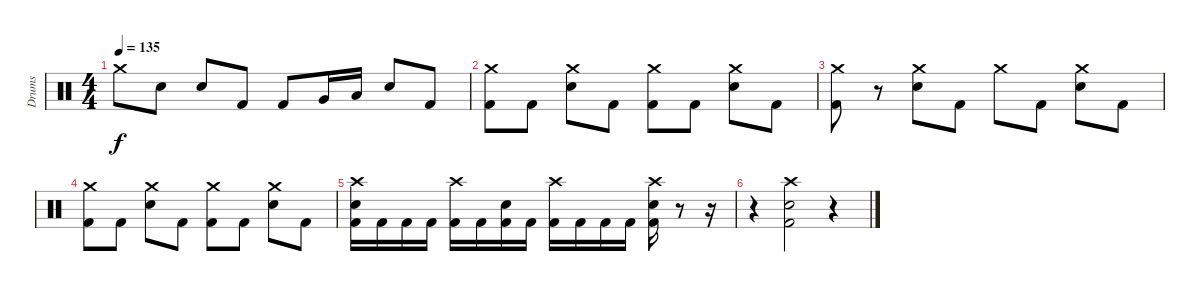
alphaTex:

\track ("Drums" "Drums") {instrument percussion}
\staff {score}
\articulation defaults
\ts (4 4)
\tempo 135
\clef neutral
\ks c "Crash medium (hit)".8{dy f} "Electric Snare (hit)".8 "Electric Snare (hit)".8 "Kick (hit) 2".8 "Kick (hit) 2".8 "Very Low Tom (hit)".16 "Low Tom (hit)".16 "Electric Snare (hit)".8 "Kick (hit) 2".8
|
("Crash medium (hit)" "Kick (hit) 2").8 "Kick (hit) 2".8 ("Crash medium (hit)" "Electric Snare (hit)").8 "Kick (hit) 2".8 ("Crash medium (hit)" "Kick (hit) 2").8 "Kick (hit) 2".8 ("Crash medium (hit)" "Electric Snare (hit)").8 "Kick (hit) 2".8 |
("Crash medium (hit)" "Kick (hit) 2").8 r.8 ("Crash medium (hit)" "Electric Snare (hit)").8 "Kick (hit) 2".8 "Crash medium (hit)".8 "Kick (hit) 2".8 ("Crash medium (hit)" "Electric Snare (hit)").8 "Kick (hit) 2".8 |
("Crash medium (hit)" "Kick (hit) 2").8 "Kick (hit) 2".8 ("Crash medium (hit)" "Electric Snare (hit)").8 "Kick (hit) 2".8 ("Crash medium (hit)" "Kick (hit) 2").8 "Kick (hit) 2".8 ("Crash medium (hit)" "Electric Snare (hit)").8 "Kick (hit) 2".8 |
("Crash high (hit)" "Electric Snare (hit)" "Kick (hit) 2").16 "Kick (hit) 2".16 "Kick (hit) 2".16 "Kick (hit) 2".16 ("Crash high (hit)" "Kick (hit) 2").16 "Kick (hit) 2".16 ("Electric Snare (hit)" "Kick (hit) 2").16 "Kick (hit) 2".16 ("Crash high (hit)" "Kick (hit) 2").16 "Kick (hit) 2".16 "Kick (hit) 2".16 "Kick (hit) 2".16 ("Crash high (hit)" "Electric Snare (hit)" "Kick (hit) 2").16 r.8 r.16 |
r.4 ("Crash high (hit)" "Electric Snare (hit)" "Kick (hit) 2").2 r.4
